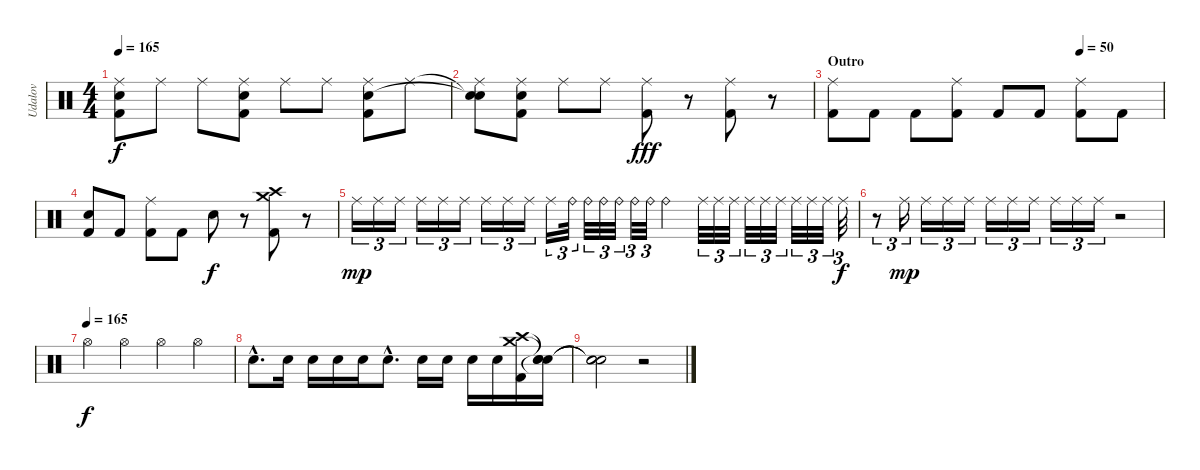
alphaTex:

\track ("Udalov" "Udalov") {instrument percussion}
\staff {score}
\articulation defaults
\ts (4 4)
\tempo 165
\clef neutral
\ks c
("Kick (hit) 2" "Electric Snare (hit)" "Ride (middle)").8{dy f} "Ride (middle)".8 "Ride (middle)".8 ("Kick (hit) 2" "Electric Snare (hit)" "Ride (middle)").8 "Ride (middle)".8 "Ride (middle)".8 ("Kick (hit) 2" "Electric Snare (hit)" "Ride (middle)").8 "Ride (middle)".8 |
("Snare (hit)"{t} "Snare (hit)"{t} "Ride (middle)").8 ("Electric Snare (hit)" "Kick (hit) 2" "Ride (middle)").8 "Ride (middle)".8 "Ride (middle)".8 ("Ride (middle)" "Kick (hit) 2").8{dy fff} r.8 ("Ride (middle)" "Kick (hit) 2").8 r.8 |
\section ("" "Outro")
\tempo (50 0.75)
("Kick (hit) 2" "Ride (middle)").8 "Kick (hit) 2".8 "Kick (hit) 2".8 ("Kick (hit) 2" "Ride (middle)").8 "Kick (hit) 2".8 "Kick (hit) 2".8 ("Kick (hit) 2" "Ride (middle)").8 "Kick (hit) 2".8 |
("Kick (hit) 2" "Electric Snare (hit)").8 "Kick (hit) 2".8 ("Kick (hit) 2" "Ride (middle)").8 "Kick (hit) 2".8 "Electric Snare (hit)".8{dy f} r.8 ("Kick (hit) 2" "Crash medium (hit)" "Crash high (hit)").8 r.8 |
"Ride (middle)".16{tu (3 2) dy mp} "Ride (middle)".16{tu (3 2)} "Ride (middle)".16{tu (3 2)} "Ride (middle)".16{tu (3 2)} "Ride (middle)".16{tu (3 2)} "Ride (middle)".16{tu (3 2)} "Ride (middle)".16{tu (3 2)} "Ride (middle)".16{tu (3 2)} "Ride (middle)".16{tu (3 2)} "Ride (middle)".16{tu (3 2)} "Ride (bell)".32{tu (3 2)} "Ride (bell)".32{tu (3 2)} "Ride (bell)".32{tu (3 2)} "Ride (bell)".32{tu (3 2)} "Ride (bell)".32{tu (3 2)} "Ride (bell)".32{tu (3 2)} "Ride (bell)".4 "Ride (middle)".32{tu (3 2)} "Ride (middle)".32{tu (3 2)} "Ride (middle)".32{tu (3 2)} "Ride (middle)".32{tu (3 2)} "Ride (middle)".32{tu (3 2)} "Ride (middle)".32{tu (3 2)} "Ride (middle)".32{tu (3 2)} "Ride (middle)".32{tu (3 2)} "Ride (middle)".32{tu (3 2)} "Ride (middle)".32{tu (3 2) dy f} |
r.8{tu (3 2)} "Ride (middle)".16{tu (3 2) dy mp} "Ride (middle)".16{tu (3 2)} "Ride (middle)".16{tu (3 2)} "Ride (middle)".16{tu (3 2)} "Ride (middle)".16{tu (3 2)} "Ride (middle)".16{tu (3 2)} "Ride (middle)".16{tu (3 2)} "Ride (middle)".16{tu (3 2)} "Ride (middle)".16{tu (3 2)} "Ride (middle)".16{tu (3 2)} r.2 |
\tempo (165)
"Hi-Hat (open)".4{dy f} "Hi-Hat (open)".4 "Hi-Hat (open)".4 "Hi-Hat (open)".4 |
"Snare (hit) 2"{hac}.8{d} "Electric Snare (hit)".16 "Electric Snare (hit)".16 "Electric Snare (hit)".16 "Electric Snare (hit)".16 "Electric Snare (hit)"{hac}.8{d} "Electric Snare (hit)".16 "Electric Snare (hit)".16 "Electric Snare (hit)".16 "Electric Snare (hit)".16 ("Kick (hit) 2" "Crash medium (hit)" "Crash high (hit)").16 ("Snare (hit)"{t} "Snare (hit)"{t} "Snare (hit)"{t}).16 |
("Snare (hit)"{t} "Snare (hit)"{t} "Snare (hit)"{t}).2 r.2
